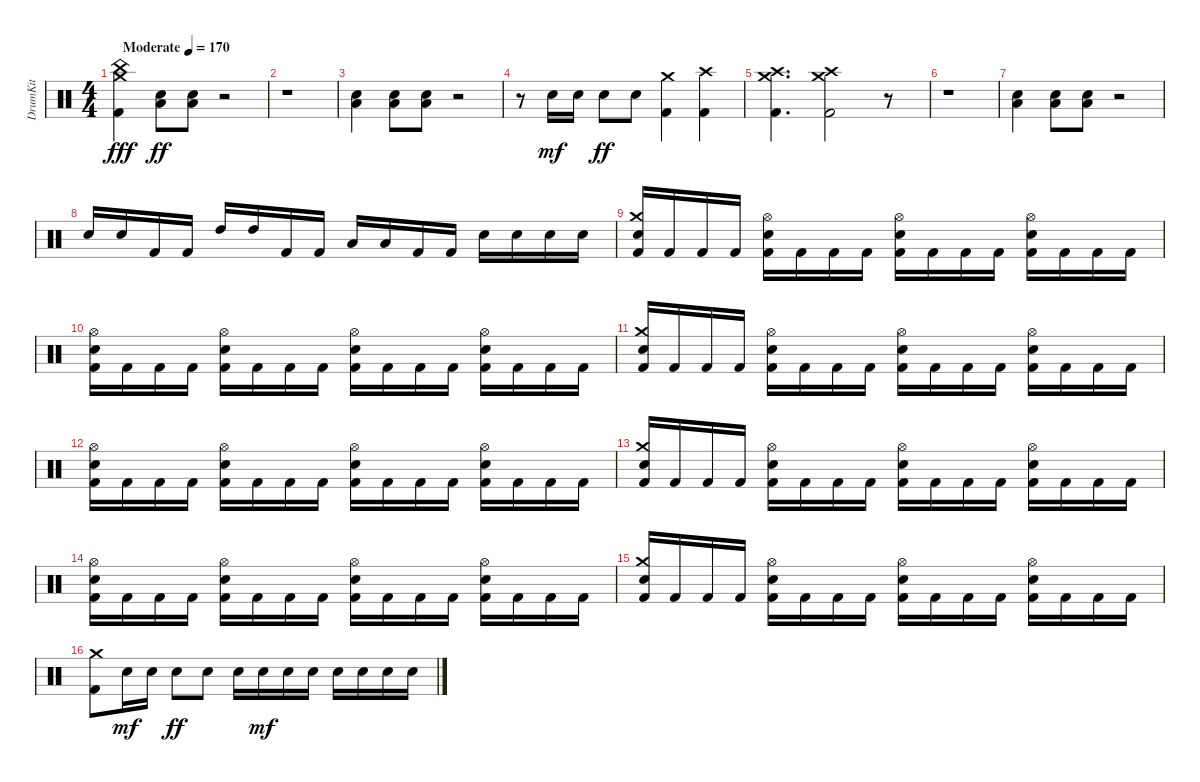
\track ("DrumKit" "DrumKit") {instrument percussion}
\staff {score}
\articulation defaults
\ts (4 4)
\tempo (170 "Moderate")
\clef neutral
\ks c
("Kick (hit) 2" "China (hit)" "Crash medium (hit)").4{dy fff} ("Snare (hit) 2" "Low Floor Tom (hit)").8{dy ff} ("Snare (hit) 2" "Low Floor Tom (hit)").8 r.2 |
r.1 |
("Snare (hit) 2" "Low Floor Tom (hit)").4 ("Snare (hit) 2" "Low Floor Tom (hit)").8 ("Snare (hit) 2" "Low Floor Tom (hit)").8 r.2 |
r.8 "Snare (hit) 2".16{dy mf} "Snare (hit) 2".16 "Snare (hit) 2".8{dy ff} "Snare (hit) 2".8 ("Kick (hit) 2" "Crash medium (hit)").4 ("Kick (hit) 2" "Crash high (hit)").4 |
("Kick (hit) 2" "Crash high (hit)" "Crash medium (hit)").4{d} ("Kick (hit) 2" "Crash high (hit)" "Crash medium (hit)").2 r.8 |
r.1 |
("Snare (hit) 2" "Low Floor Tom (hit)").4 ("Snare (hit) 2" "Low Floor Tom (hit)").8 ("Snare (hit) 2" "Low Floor Tom (hit)").8 r.2 |
"Snare (hit) 2".16 "Snare (hit) 2".16 "Kick (hit) 2".16 "Kick (hit) 2".16 "High Tom (hit)".16 "High Tom (hit)".16 "Kick (hit) 2".16 "Kick (hit) 2".16 "Low Tom (hit)".16 "Low Tom (hit)".16 "Kick (hit) 2".16 "Kick (hit) 2".16 "Snare (hit) 2".16 "Snare (hit) 2".16 "Snare (hit) 2".16 "Snare (hit) 2".16 |
("Kick (hit) 2" "Snare (hit) 2" "Crash medium (hit)").16 "Kick (hit) 2".16 "Kick (hit) 2".16 "Kick (hit) 2".16 ("Kick (hit) 2" "Snare (hit) 2" "Hi-Hat (open)").16 "Kick (hit) 2".16 "Kick (hit) 2".16 "Kick (hit) 2".16 ("Kick (hit) 2" "Snare (hit) 2" "Hi-Hat (open)").16 "Kick (hit) 2".16 "Kick (hit) 2".16 "Kick (hit) 2".16 ("Kick (hit) 2" "Snare (hit) 2" "Hi-Hat (open)").16 "Kick (hit) 2".16 "Kick (hit) 2".16 "Kick (hit) 2".16 |
("Kick (hit) 2" "Snare (hit) 2" "Hi-Hat (open)").16 "Kick (hit) 2".16 "Kick (hit) 2".16 "Kick (hit) 2".16 ("Kick (hit) 2" "Snare (hit) 2" "Hi-Hat (open)").16 "Kick (hit) 2".16 "Kick (hit) 2".16 "Kick (hit) 2".16 ("Kick (hit) 2" "Snare (hit) 2" "Hi-Hat (open)").16 "Kick (hit) 2".16 "Kick (hit) 2".16 "Kick (hit) 2".16 ("Kick (hit) 2" "Snare (hit) 2" "Hi-Hat (open)").16 "Kick (hit) 2".16 "Kick (hit) 2".16 "Kick (hit) 2".16 |
("Kick (hit) 2" "Snare (hit) 2" "Crash medium (hit)").16 "Kick (hit) 2".16 "Kick (hit) 2".16 "Kick (hit) 2".16 ("Kick (hit) 2" "Snare (hit) 2" "Hi-Hat (open)").16 "Kick (hit) 2".16 "Kick (hit) 2".16 "Kick (hit) 2".16 ("Kick (hit) 2" "Snare (hit) 2" "Hi-Hat (open)").16 "Kick (hit) 2".16 "Kick (hit) 2".16 "Kick (hit) 2".16 ("Kick (hit) 2" "Snare (hit) 2" "Hi-Hat (open)").16 "Kick (hit) 2".16 "Kick (hit) 2".16 "Kick (hit) 2".16 |
("Kick (hit) 2" "Snare (hit) 2" "Hi-Hat (open)").16 "Kick (hit) 2".16 "Kick (hit) 2".16 "Kick (hit) 2".16 ("Kick (hit) 2" "Snare (hit) 2" "Hi-Hat (open)").16 "Kick (hit) 2".16 "Kick (hit) 2".16 "Kick (hit) 2".16 ("Kick (hit) 2" "Snare (hit) 2" "Hi-Hat (open)").16 "Kick (hit) 2".16 "Kick (hit) 2".16 "Kick (hit) 2".16 ("Kick (hit) 2" "Snare (hit) 2" "Hi-Hat (open)").16 "Kick (hit) 2".16 "Kick (hit) 2".16 "Kick (hit) 2".16 |
("Kick (hit) 2" "Snare (hit) 2" "Crash medium (hit)").16 "Kick (hit) 2".16 "Kick (hit) 2".16 "Kick (hit) 2".16 ("Kick (hit) 2" "Snare (hit) 2" "Hi-Hat (open)").16 "Kick (hit) 2".16 "Kick (hit) 2".16 "Kick (hit) 2".16 ("Kick (hit) 2" "Snare (hit) 2" "Hi-Hat (open)").16 "Kick (hit) 2".16 "Kick (hit) 2".16 "Kick (hit) 2".16 ("Kick (hit) 2" "Snare (hit) 2" "Hi-Hat (open)").16 "Kick (hit) 2".16 "Kick (hit) 2".16 "Kick (hit) 2".16 |
("Kick (hit) 2" "Snare (hit) 2" "Hi-Hat (open)").16 "Kick (hit) 2".16 "Kick (hit) 2".16 "Kick (hit) 2".16 ("Kick (hit) 2" "Snare (hit) 2" "Hi-Hat (open)").16 "Kick (hit) 2".16 "Kick (hit) 2".16 "Kick (hit) 2".16 ("Kick (hit) 2" "Snare (hit) 2" "Hi-Hat (open)").16 "Kick (hit) 2".16 "Kick (hit) 2".16 "Kick (hit) 2".16 ("Kick (hit) 2" "Snare (hit) 2" "Hi-Hat (open)").16 "Kick (hit) 2".16 "Kick (hit) 2".16 "Kick (hit) 2".16 |
("Kick (hit) 2" "Snare (hit) 2" "Crash medium (hit)").16 "Kick (hit) 2".16 "Kick (hit) 2".16 "Kick (hit) 2".16 ("Kick (hit) 2" "Snare (hit) 2" "Hi-Hat (open)").16 "Kick (hit) 2".16 "Kick (hit) 2".16 "Kick (hit) 2".16 ("Kick (hit) 2" "Snare (hit) 2" "Hi-Hat (open)").16 "Kick (hit) 2".16 "Kick (hit) 2".16 "Kick (hit) 2".16 ("Kick (hit) 2" "Snare (hit) 2" "Hi-Hat (open)").16 "Kick (hit) 2".16 "Kick (hit) 2".16 "Kick (hit) 2".16 |
("Kick (hit) 2" "Crash medium (hit)").8 "Snare (hit) 2".16{dy mf} "Snare (hit) 2".16 "Snare (hit) 2".8{dy ff} "Snare (hit) 2".8 "Snare (hit) 2".16 "Snare (hit) 2".16{dy mf} "Snare (hit) 2".16 "Snare (hit) 2".16 "Snare (hit) 2".16 "Snare (hit) 2".16 "Snare (hit) 2".16 "Snare (hit) 2".16
